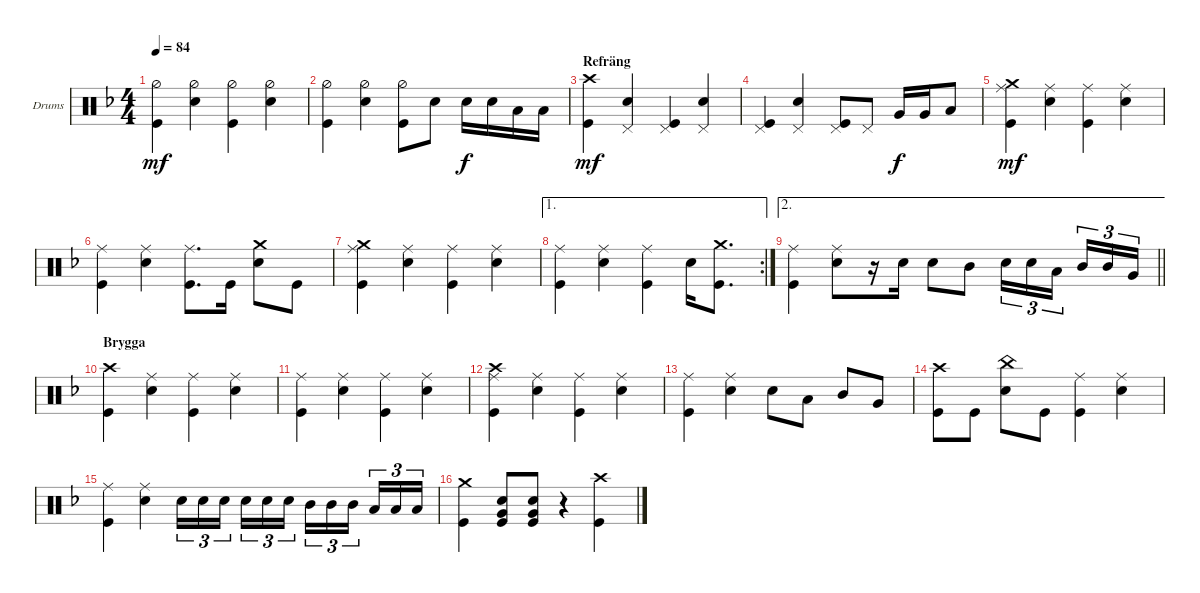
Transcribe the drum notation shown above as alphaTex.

\defaultSystemsLayout 4
\bracketExtendMode groupsimilarinstruments
\firstSystemTrackNameOrientation horizontal
\otherSystemsTrackNameOrientation horizontal
\track ("Drumkit" "Drums") {instrument percussion}
\staff {score}
\articulation defaults
\ts (4 4)
\tempo 84
\clef neutral
\ks dminor
("Kick (hit)" "Hi-Hat (half)").4{dy mf} ("Hi-Hat (half)" "Snare (hit) 2").4 ("Hi-Hat (half)" "Kick (hit)").4 ("Hi-Hat (half)" "Snare (hit) 2").4 |
("Kick (hit)" "Hi-Hat (half)").4 ("Hi-Hat (half)" "Snare (hit) 2").4 ("Hi-Hat (half)" "Kick (hit)").8 "Snare (hit) 2".8 "Snare (hit) 2".16{dy f} "Snare (hit) 2".16 "Low Tom (hit)".16 "Low Tom (hit)".16 |
\section ("" "Refräng")
("Kick (hit)" "Crash high (hit)").4{dy mf} ("Snare (hit) 2" "Pedal Hi-Hat (hit)").4 ("Kick (hit)" "Pedal Hi-Hat (hit)").4 ("Snare (hit) 2" "Pedal Hi-Hat (hit)").4 |
("Kick (hit)" "Pedal Hi-Hat (hit)").4 ("Snare (hit) 2" "Pedal Hi-Hat (hit)").4 ("Kick (hit)" "Pedal Hi-Hat (hit)").8 "Pedal Hi-Hat (hit)".8 "Very Low Tom (hit)".16{dy f} "Very Low Tom (hit)".16 "Low Tom (hit)".8 |
("Kick (hit)" "Crash medium (hit)" "Ride (middle)").4{dy mf} ("Ride (middle)" "Snare (hit) 2").4 ("Ride (middle)" "Kick (hit)").4 ("Ride (middle)" "Snare (hit) 2").4 |
("Kick (hit)" "Ride (middle)").4 ("Ride (middle)" "Snare (hit) 2").4 ("Ride (middle)" "Kick (hit)").8{d} "Kick (hit)".16 ("Crash medium (hit)" "Snare (hit) 2").8 "Kick (hit)".8 |
("Kick (hit)" "Crash medium (hit)" "Ride (middle)").4 ("Ride (middle)" "Snare (hit) 2").4 ("Ride (middle)" "Kick (hit)").4 ("Ride (middle)" "Snare (hit) 2").4 |
\ae 1
\rc 2
("Kick (hit)" "Ride (middle)").4 ("Ride (middle)" "Snare (hit) 2").4 ("Ride (middle)" "Kick (hit)").4 "Snare (hit) 2".16 ("Kick (hit)" "Crash medium (hit)").8{d} |
\ae 2
\barLineRight lightlight
("Kick (hit)" "Ride (middle)").4 ("Ride (middle)" "Snare (hit) 2").8 r.16 "Snare (hit) 2".16 "Snare (hit) 2".8 "Mid Tom (hit)".8 "Snare (hit) 2".16{tu (3 2)} "Snare (hit) 2".16{tu (3 2)} "Low Tom (hit)".16{tu (3 2)} "Mid Tom (hit)".16{tu (3 2)} "Mid Tom (hit)".16{tu (3 2)} "Very Low Tom (hit)".16{tu (3 2)} |
\section ("" "Brygga")
("Crash high (hit)" "Kick (hit)").4 ("Ride (middle)" "Snare (hit) 2").4 ("Ride (middle)" "Kick (hit)").4 ("Ride (middle)" "Snare (hit) 2").4 |
("Kick (hit)" "Ride (middle)").4 ("Ride (middle)" "Snare (hit) 2").4 ("Ride (middle)" "Kick (hit)").4 ("Ride (middle)" "Snare (hit) 2").4 |
("Kick (hit)" "Ride (middle)" "Crash high (hit)").4 ("Ride (middle)" "Snare (hit) 2").4 ("Ride (middle)" "Kick (hit)").4 ("Ride (middle)" "Snare (hit) 2").4 |
("Kick (hit)" "Ride (middle)").4 ("Ride (middle)" "Snare (hit) 2").4 "Snare (hit) 2".8 "Low Tom (hit)".8 "Mid Tom (hit)".8 "Very Low Tom (hit)".8 |
("Kick (hit)" "Crash high (hit)").8 "Kick (hit)".8 ("Snare (hit) 2" "China (hit)").8 "Kick (hit)".8 ("Kick (hit)" "Ride (middle)").4 ("Snare (hit) 2" "Ride (middle)").4 |
("Kick (hit)" "Ride (middle)").4 ("Snare (hit) 2" "Ride (middle)").4 "Snare (hit) 2".16{tu (3 2)} "Snare (hit) 2".16{tu (3 2)} "Snare (hit) 2".16{tu (3 2)} "Snare (hit) 2".16{tu (3 2)} "Snare (hit) 2".16{tu (3 2)} "Snare (hit) 2".16{tu (3 2)} "Mid Tom (hit)".16{tu (3 2)} "Mid Tom (hit)".16{tu (3 2)} "Mid Tom (hit)".16{tu (3 2)} "Low Tom (hit)".16{tu (3 2)} "Low Tom (hit)".16{tu (3 2)} "Low Tom (hit)".16{tu (3 2)} |
("Crash medium (hit)" "Kick (hit)").4 ("Kick (hit)" "Very Low Tom (hit)" "Snare (hit) 2").8 ("Kick (hit)" "Very Low Tom (hit)" "Snare (hit) 2").8 r.4 ("Kick (hit)" "Crash high (hit)").4
